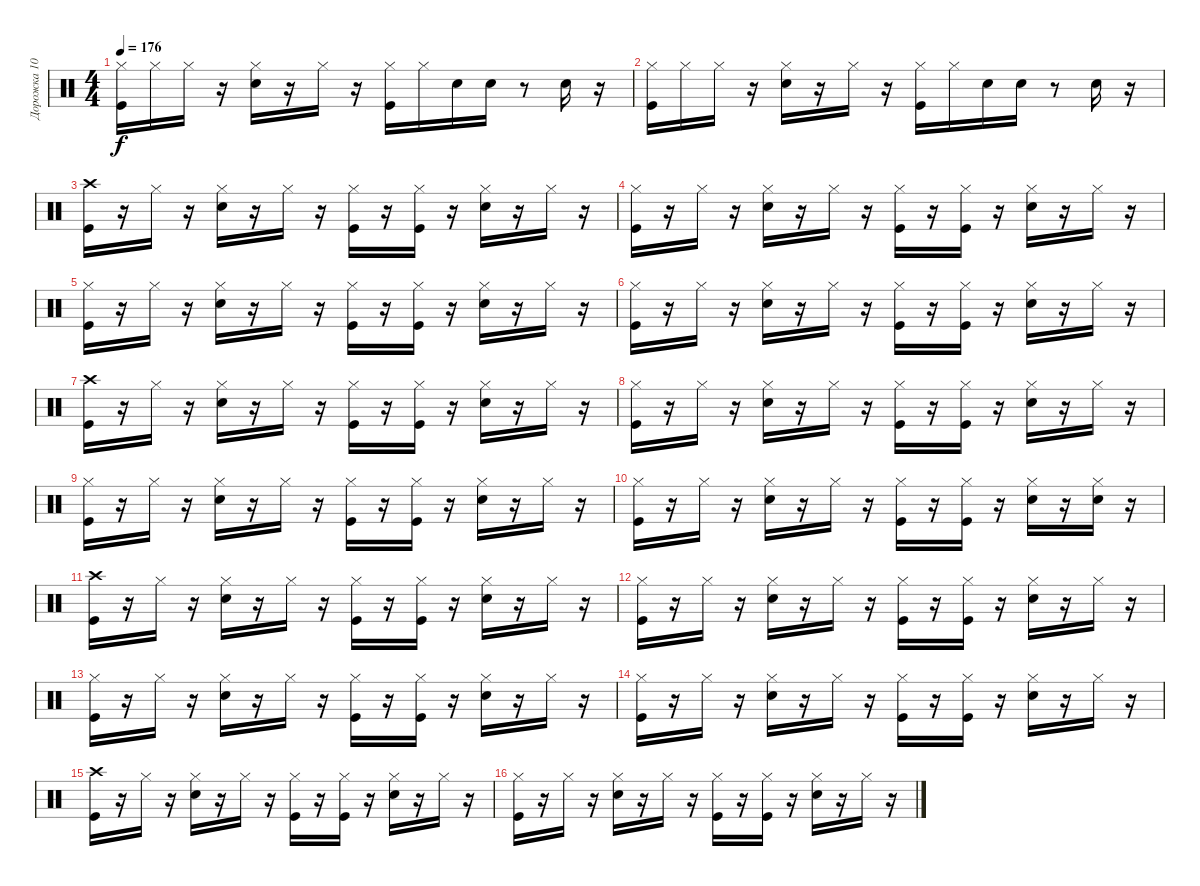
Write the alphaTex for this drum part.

\track ("Дорожка 10" "Дорожка 10") {instrument percussion}
\staff {score}
\articulation defaults
\ts (4 4)
\tempo 176
\clef neutral
\ks c
("Kick (hit)" "Hi-Hat (closed)").16{dy f} "Hi-Hat (closed)".16 "Hi-Hat (closed)".16 r.16 ("Electric Snare (hit)" "Hi-Hat (closed)").16 r.16 "Hi-Hat (closed)".16 r.16 ("Kick (hit)" "Hi-Hat (closed)").16 "Hi-Hat (closed)".16 "Electric Snare (hit)".16 "Electric Snare (hit)".16 r.8 "Electric Snare (hit)".16 r.16 |
("Kick (hit)" "Hi-Hat (closed)").16 "Hi-Hat (closed)".16 "Hi-Hat (closed)".16 r.16 ("Electric Snare (hit)" "Hi-Hat (closed)").16 r.16 "Hi-Hat (closed)".16 r.16 ("Hi-Hat (closed)" "Kick (hit)").16 "Hi-Hat (closed)".16 "Electric Snare (hit)".16 "Electric Snare (hit)".16 r.8 "Electric Snare (hit)".16 r.16 |
("Kick (hit)" "Crash high (hit)").16 r.16 "Hi-Hat (closed)".16 r.16 ("Hi-Hat (closed)" "Electric Snare (hit)").16 r.16 "Hi-Hat (closed)".16 r.16 ("Kick (hit)" "Hi-Hat (closed)").16 r.16 ("Kick (hit)" "Hi-Hat (closed)").16 r.16 ("Electric Snare (hit)" "Hi-Hat (closed)").16 r.16 "Hi-Hat (closed)".16 r.16 |
("Kick (hit)" "Hi-Hat (closed)").16 r.16 "Hi-Hat (closed)".16 r.16 ("Hi-Hat (closed)" "Electric Snare (hit)").16 r.16 "Hi-Hat (closed)".16 r.16 ("Hi-Hat (closed)" "Kick (hit)").16 r.16 ("Hi-Hat (closed)" "Kick (hit)").16 r.16 ("Hi-Hat (closed)" "Electric Snare (hit)").16 r.16 "Hi-Hat (closed)".16 r.16 |
("Kick (hit)" "Hi-Hat (closed)").16 r.16 "Hi-Hat (closed)".16 r.16 ("Hi-Hat (closed)" "Electric Snare (hit)").16 r.16 "Hi-Hat (closed)".16 r.16 ("Hi-Hat (closed)" "Kick (hit)").16 r.16 ("Hi-Hat (closed)" "Kick (hit)").16 r.16 ("Hi-Hat (closed)" "Electric Snare (hit)").16 r.16 "Hi-Hat (closed)".16 r.16 |
("Hi-Hat (closed)" "Kick (hit)").16 r.16 "Hi-Hat (closed)".16 r.16 ("Hi-Hat (closed)" "Electric Snare (hit)").16 r.16 "Hi-Hat (closed)".16 r.16 ("Kick (hit)" "Hi-Hat (closed)").16 r.16 ("Kick (hit)" "Hi-Hat (closed)").16 r.16 ("Electric Snare (hit)" "Hi-Hat (closed)").16 r.16 "Hi-Hat (closed)".16 r.16 |
("Kick (hit)" "Crash high (hit)").16 r.16 "Hi-Hat (closed)".16 r.16 ("Electric Snare (hit)" "Hi-Hat (closed)").16 r.16 "Hi-Hat (closed)".16 r.16 ("Kick (hit)" "Hi-Hat (closed)").16 r.16 ("Hi-Hat (closed)" "Kick (hit)").16 r.16 ("Electric Snare (hit)" "Hi-Hat (closed)").16 r.16 "Hi-Hat (closed)".16 r.16 |
("Hi-Hat (closed)" "Kick (hit)").16 r.16 "Hi-Hat (closed)".16 r.16 ("Hi-Hat (closed)" "Electric Snare (hit)").16 r.16 "Hi-Hat (closed)".16 r.16 ("Hi-Hat (closed)" "Kick (hit)").16 r.16 ("Hi-Hat (closed)" "Kick (hit)").16 r.16 ("Hi-Hat (closed)" "Electric Snare (hit)").16 r.16 "Hi-Hat (closed)".16 r.16 |
("Kick (hit)" "Hi-Hat (closed)").16 r.16 "Hi-Hat (closed)".16 r.16 ("Electric Snare (hit)" "Hi-Hat (closed)").16 r.16 "Hi-Hat (closed)".16 r.16 ("Kick (hit)" "Hi-Hat (closed)").16 r.16 ("Hi-Hat (closed)" "Kick (hit)").16 r.16 ("Electric Snare (hit)" "Hi-Hat (closed)").16 r.16 "Hi-Hat (closed)".16 r.16 |
("Hi-Hat (closed)" "Kick (hit)").16 r.16 "Hi-Hat (closed)".16 r.16 ("Hi-Hat (closed)" "Electric Snare (hit)").16 r.16 "Hi-Hat (closed)".16 r.16 ("Hi-Hat (closed)" "Kick (hit)").16 r.16 ("Hi-Hat (closed)" "Kick (hit)").16 r.16 ("Hi-Hat (closed)" "Electric Snare (hit)").16 r.16 ("Hi-Hat (closed)" "Electric Snare (hit)").16 r.16 |
("Kick (hit)" "Crash high (hit)").16 r.16 "Hi-Hat (closed)".16 r.16 ("Hi-Hat (closed)" "Electric Snare (hit)").16 r.16 "Hi-Hat (closed)".16 r.16 ("Kick (hit)" "Hi-Hat (closed)").16 r.16 ("Kick (hit)" "Hi-Hat (closed)").16 r.16 ("Electric Snare (hit)" "Hi-Hat (closed)").16 r.16 "Hi-Hat (closed)".16 r.16 |
("Kick (hit)" "Hi-Hat (closed)").16 r.16 "Hi-Hat (closed)".16 r.16 ("Electric Snare (hit)" "Hi-Hat (closed)").16 r.16 "Hi-Hat (closed)".16 r.16 ("Hi-Hat (closed)" "Kick (hit)").16 r.16 ("Hi-Hat (closed)" "Kick (hit)").16 r.16 ("Electric Snare (hit)" "Hi-Hat (closed)").16 r.16 "Hi-Hat (closed)".16 r.16 |
("Kick (hit)" "Hi-Hat (closed)").16 r.16 "Hi-Hat (closed)".16 r.16 ("Electric Snare (hit)" "Hi-Hat (closed)").16 r.16 "Hi-Hat (closed)".16 r.16 ("Hi-Hat (closed)" "Kick (hit)").16 r.16 ("Kick (hit)" "Hi-Hat (closed)").16 r.16 ("Electric Snare (hit)" "Hi-Hat (closed)").16 r.16 "Hi-Hat (closed)".16 r.16 |
("Hi-Hat (closed)" "Kick (hit)").16 r.16 "Hi-Hat (closed)".16 r.16 ("Hi-Hat (closed)" "Electric Snare (hit)").16 r.16 "Hi-Hat (closed)".16 r.16 ("Kick (hit)" "Hi-Hat (closed)").16 r.16 ("Kick (hit)" "Hi-Hat (closed)").16 r.16 ("Hi-Hat (closed)" "Electric Snare (hit)").16 r.16 "Hi-Hat (closed)".16 r.16 |
("Kick (hit)" "Crash high (hit)").16 r.16 "Hi-Hat (closed)".16 r.16 ("Hi-Hat (closed)" "Electric Snare (hit)").16 r.16 "Hi-Hat (closed)".16 r.16 ("Kick (hit)" "Hi-Hat (closed)").16 r.16 ("Hi-Hat (closed)" "Kick (hit)").16 r.16 ("Electric Snare (hit)" "Hi-Hat (closed)").16 r.16 "Hi-Hat (closed)".16 r.16 |
("Kick (hit)" "Hi-Hat (closed)").16 r.16 "Hi-Hat (closed)".16 r.16 ("Hi-Hat (closed)" "Electric Snare (hit)").16 r.16 "Hi-Hat (closed)".16 r.16 ("Hi-Hat (closed)" "Kick (hit)").16 r.16 ("Kick (hit)" "Hi-Hat (closed)").16 r.16 ("Hi-Hat (closed)" "Electric Snare (hit)").16 r.16 "Hi-Hat (closed)".16 r.16
